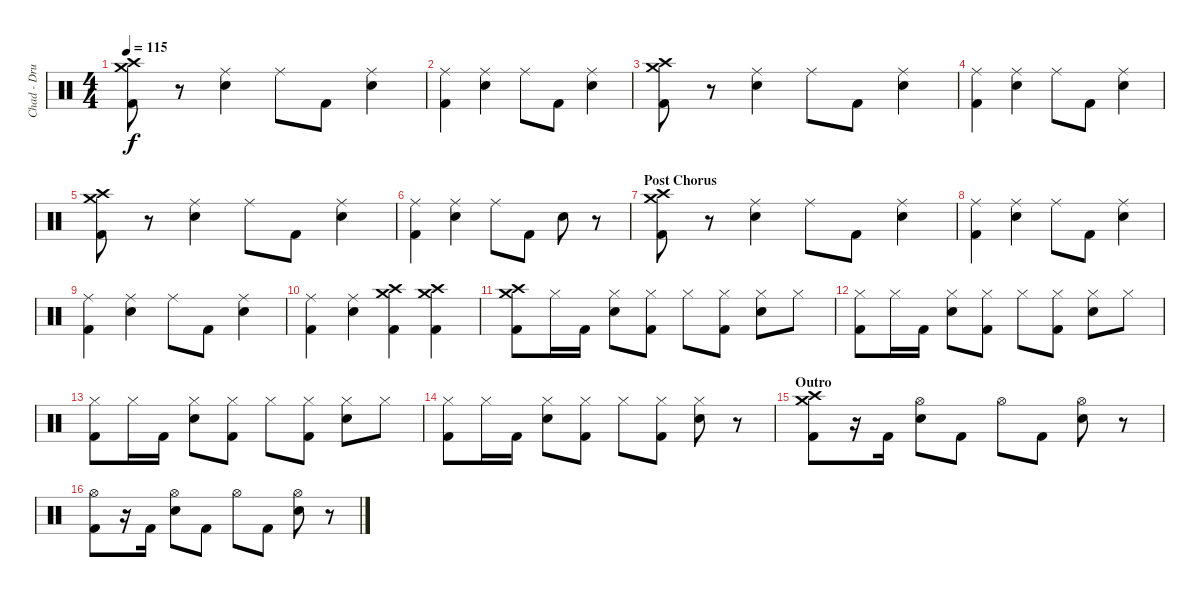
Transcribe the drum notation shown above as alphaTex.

\track ("Chad - Drums" "Chad - Dru") {instrument percussion}
\staff {score}
\articulation defaults
\ts (4 4)
\tempo 115
\clef neutral
\ks c
("Crash high (hit)" "Crash medium (hit)" "Kick (hit) 2").8{dy f} r.8 ("Electric Snare (hit)" "Ride (middle)").4 "Ride (middle)".8 "Kick (hit) 2".8 ("Electric Snare (hit)" "Ride (middle)").4 |
("Kick (hit) 2" "Ride (middle)").4 ("Electric Snare (hit)" "Ride (middle)").4 "Ride (middle)".8 "Kick (hit) 2".8 ("Electric Snare (hit)" "Ride (middle)").4 |
("Kick (hit) 2" "Crash high (hit)" "Crash medium (hit)").8 r.8 ("Electric Snare (hit)" "Ride (middle)").4 "Ride (middle)".8 "Kick (hit) 2".8 ("Electric Snare (hit)" "Ride (middle)").4 |
("Kick (hit) 2" "Ride (middle)").4 ("Electric Snare (hit)" "Ride (middle)").4 "Ride (middle)".8 "Kick (hit) 2".8 ("Electric Snare (hit)" "Ride (middle)").4 |
("Crash high (hit)" "Crash medium (hit)" "Kick (hit) 2").8 r.8 ("Electric Snare (hit)" "Ride (middle)").4 "Ride (middle)".8 "Kick (hit) 2".8 ("Electric Snare (hit)" "Ride (middle)").4 |
("Kick (hit) 2" "Ride (middle)").4 ("Electric Snare (hit)" "Ride (middle)").4 "Ride (middle)".8 "Kick (hit) 2".8 "Electric Snare (hit)".8 r.8 |
\section ("" "Post Chorus")
("Crash high (hit)" "Crash medium (hit)" "Kick (hit) 2").8 r.8 ("Electric Snare (hit)" "Ride (middle)").4 "Ride (middle)".8 "Kick (hit) 2".8 ("Electric Snare (hit)" "Ride (middle)").4 |
("Kick (hit) 2" "Ride (middle)").4 ("Electric Snare (hit)" "Ride (middle)").4 "Ride (middle)".8 "Kick (hit) 2".8 ("Ride (middle)" "Electric Snare (hit)").4 |
("Ride (middle)" "Kick (hit) 2").4 ("Electric Snare (hit)" "Ride (middle)").4 "Ride (middle)".8 "Kick (hit) 2".8 ("Electric Snare (hit)" "Ride (middle)").4 |
("Kick (hit) 2" "Ride (middle)").4 ("Electric Snare (hit)" "Ride (middle)").4 ("Crash medium (hit)" "Crash high (hit)" "Kick (hit) 2").4 ("Kick (hit) 2" "Crash high (hit)" "Crash medium (hit)").4 |
("Kick (hit) 2" "Crash medium (hit)" "Crash high (hit)").8 "Hi-Hat (closed)".16 "Kick (hit) 2".16 ("Hi-Hat (closed)" "Electric Snare (hit)").8 ("Kick (hit) 2" "Hi-Hat (closed)").8 "Hi-Hat (closed)".8 ("Kick (hit) 2" "Hi-Hat (closed)").8 ("Hi-Hat (closed)" "Electric Snare (hit)").8 "Hi-Hat (closed)".8 |
("Hi-Hat (closed)" "Kick (hit) 2").8 "Hi-Hat (closed)".16 "Kick (hit) 2".16 ("Hi-Hat (closed)" "Electric Snare (hit)").8 ("Hi-Hat (closed)" "Kick (hit) 2").8 "Hi-Hat (closed)".8 ("Kick (hit) 2" "Hi-Hat (closed)").8 ("Hi-Hat (closed)" "Electric Snare (hit)").8 "Hi-Hat (closed)".8 |
("Hi-Hat (closed)" "Kick (hit) 2").8 "Hi-Hat (closed)".16 "Kick (hit) 2".16 ("Hi-Hat (closed)" "Electric Snare (hit)").8 ("Kick (hit) 2" "Hi-Hat (closed)").8 "Hi-Hat (closed)".8 ("Kick (hit) 2" "Hi-Hat (closed)").8 ("Hi-Hat (closed)" "Electric Snare (hit)").8 "Hi-Hat (closed)".8 |
("Hi-Hat (closed)" "Kick (hit) 2").8 "Hi-Hat (closed)".16 "Kick (hit) 2".16 ("Hi-Hat (closed)" "Electric Snare (hit)").8 ("Hi-Hat (closed)" "Kick (hit) 2").8 "Hi-Hat (closed)".8 ("Kick (hit) 2" "Hi-Hat (closed)").8 ("Hi-Hat (closed)" "Electric Snare (hit)").8 r.8 |
\section ("" "Outro")
("Kick (hit) 2" "Crash medium (hit)" "Crash high (hit)").8 r.16 "Kick (hit) 2".16 ("Hi-Hat (open)" "Electric Snare (hit)").8 "Kick (hit) 2".8 "Hi-Hat (open)".8 "Kick (hit) 2".8 ("Hi-Hat (open)" "Electric Snare (hit)").8 r.8 |
("Hi-Hat (open)" "Kick (hit) 2").8 r.16 "Kick (hit) 2".16 ("Hi-Hat (open)" "Electric Snare (hit)").8 "Kick (hit) 2".8 "Hi-Hat (open)".8 "Kick (hit) 2".8 ("Hi-Hat (open)" "Electric Snare (hit)").8 r.8
